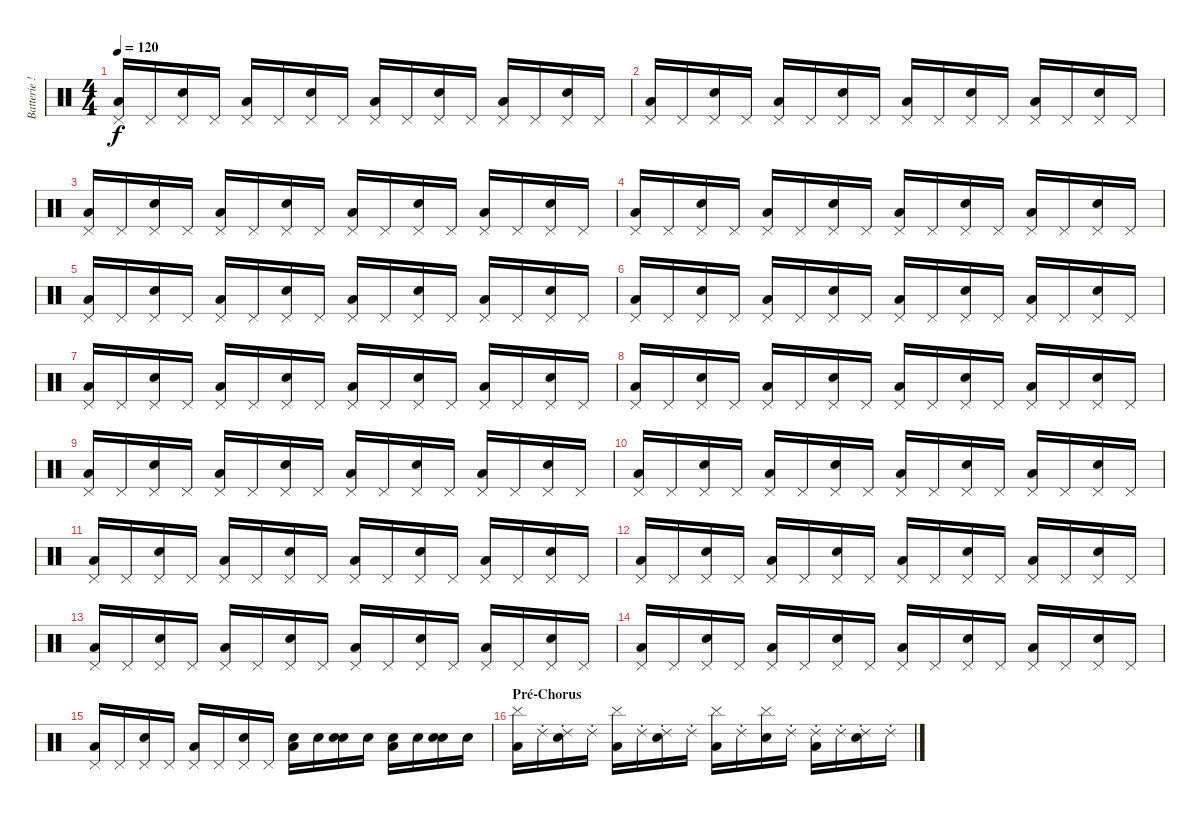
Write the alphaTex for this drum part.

\track ("Batterie !!" "Batterie !") {instrument percussion}
\staff {score}
\articulation defaults
\ts (4 4)
\tempo 120
\clef neutral
\ks c
("Pedal Hi-Hat (hit)" "Low Floor Tom (hit)").16{dy f} "Pedal Hi-Hat (hit)".16 ("Pedal Hi-Hat (hit)" "Electric Snare (hit)").16 "Pedal Hi-Hat (hit)".16 ("Pedal Hi-Hat (hit)" "Low Floor Tom (hit)").16 "Pedal Hi-Hat (hit)".16 ("Pedal Hi-Hat (hit)" "Electric Snare (hit)").16 "Pedal Hi-Hat (hit)".16 ("Pedal Hi-Hat (hit)" "Low Floor Tom (hit)").16 "Pedal Hi-Hat (hit)".16 ("Pedal Hi-Hat (hit)" "Electric Snare (hit)").16 "Pedal Hi-Hat (hit)".16 ("Pedal Hi-Hat (hit)" "Low Floor Tom (hit)").16 "Pedal Hi-Hat (hit)".16 ("Pedal Hi-Hat (hit)" "Electric Snare (hit)").16 "Pedal Hi-Hat (hit)".16 |
("Pedal Hi-Hat (hit)" "Low Floor Tom (hit)").16 "Pedal Hi-Hat (hit)".16 ("Pedal Hi-Hat (hit)" "Electric Snare (hit)").16 "Pedal Hi-Hat (hit)".16 ("Pedal Hi-Hat (hit)" "Low Floor Tom (hit)").16 "Pedal Hi-Hat (hit)".16 ("Pedal Hi-Hat (hit)" "Electric Snare (hit)").16 "Pedal Hi-Hat (hit)".16 ("Pedal Hi-Hat (hit)" "Low Floor Tom (hit)").16 "Pedal Hi-Hat (hit)".16 ("Pedal Hi-Hat (hit)" "Electric Snare (hit)").16 "Pedal Hi-Hat (hit)".16 ("Pedal Hi-Hat (hit)" "Low Floor Tom (hit)").16 "Pedal Hi-Hat (hit)".16 ("Pedal Hi-Hat (hit)" "Electric Snare (hit)").16 "Pedal Hi-Hat (hit)".16 |
("Pedal Hi-Hat (hit)" "Low Floor Tom (hit)").16 "Pedal Hi-Hat (hit)".16 ("Pedal Hi-Hat (hit)" "Electric Snare (hit)").16 "Pedal Hi-Hat (hit)".16 ("Pedal Hi-Hat (hit)" "Low Floor Tom (hit)").16 "Pedal Hi-Hat (hit)".16 ("Pedal Hi-Hat (hit)" "Electric Snare (hit)").16 "Pedal Hi-Hat (hit)".16 ("Pedal Hi-Hat (hit)" "Low Floor Tom (hit)").16 "Pedal Hi-Hat (hit)".16 ("Pedal Hi-Hat (hit)" "Electric Snare (hit)").16 "Pedal Hi-Hat (hit)".16 ("Pedal Hi-Hat (hit)" "Low Floor Tom (hit)").16 "Pedal Hi-Hat (hit)".16 ("Pedal Hi-Hat (hit)" "Electric Snare (hit)").16 "Pedal Hi-Hat (hit)".16 |
("Pedal Hi-Hat (hit)" "Low Floor Tom (hit)").16 "Pedal Hi-Hat (hit)".16 ("Pedal Hi-Hat (hit)" "Electric Snare (hit)").16 "Pedal Hi-Hat (hit)".16 ("Pedal Hi-Hat (hit)" "Low Floor Tom (hit)").16 "Pedal Hi-Hat (hit)".16 ("Pedal Hi-Hat (hit)" "Electric Snare (hit)").16 "Pedal Hi-Hat (hit)".16 ("Pedal Hi-Hat (hit)" "Low Floor Tom (hit)").16 "Pedal Hi-Hat (hit)".16 ("Pedal Hi-Hat (hit)" "Electric Snare (hit)").16 "Pedal Hi-Hat (hit)".16 ("Pedal Hi-Hat (hit)" "Low Floor Tom (hit)").16 "Pedal Hi-Hat (hit)".16 ("Pedal Hi-Hat (hit)" "Electric Snare (hit)").16 "Pedal Hi-Hat (hit)".16 |
("Pedal Hi-Hat (hit)" "Low Floor Tom (hit)").16 "Pedal Hi-Hat (hit)".16 ("Pedal Hi-Hat (hit)" "Electric Snare (hit)").16 "Pedal Hi-Hat (hit)".16 ("Pedal Hi-Hat (hit)" "Low Floor Tom (hit)").16 "Pedal Hi-Hat (hit)".16 ("Pedal Hi-Hat (hit)" "Electric Snare (hit)").16 "Pedal Hi-Hat (hit)".16 ("Pedal Hi-Hat (hit)" "Low Floor Tom (hit)").16 "Pedal Hi-Hat (hit)".16 ("Pedal Hi-Hat (hit)" "Electric Snare (hit)").16 "Pedal Hi-Hat (hit)".16 ("Pedal Hi-Hat (hit)" "Low Floor Tom (hit)").16 "Pedal Hi-Hat (hit)".16 ("Pedal Hi-Hat (hit)" "Electric Snare (hit)").16 "Pedal Hi-Hat (hit)".16 |
("Pedal Hi-Hat (hit)" "Low Floor Tom (hit)").16 "Pedal Hi-Hat (hit)".16 ("Pedal Hi-Hat (hit)" "Electric Snare (hit)").16 "Pedal Hi-Hat (hit)".16 ("Pedal Hi-Hat (hit)" "Low Floor Tom (hit)").16 "Pedal Hi-Hat (hit)".16 ("Pedal Hi-Hat (hit)" "Electric Snare (hit)").16 "Pedal Hi-Hat (hit)".16 ("Pedal Hi-Hat (hit)" "Low Floor Tom (hit)").16 "Pedal Hi-Hat (hit)".16 ("Pedal Hi-Hat (hit)" "Electric Snare (hit)").16 "Pedal Hi-Hat (hit)".16 ("Pedal Hi-Hat (hit)" "Low Floor Tom (hit)").16 "Pedal Hi-Hat (hit)".16 ("Pedal Hi-Hat (hit)" "Electric Snare (hit)").16 "Pedal Hi-Hat (hit)".16 |
("Pedal Hi-Hat (hit)" "Low Floor Tom (hit)").16 "Pedal Hi-Hat (hit)".16 ("Pedal Hi-Hat (hit)" "Electric Snare (hit)").16 "Pedal Hi-Hat (hit)".16 ("Pedal Hi-Hat (hit)" "Low Floor Tom (hit)").16 "Pedal Hi-Hat (hit)".16 ("Pedal Hi-Hat (hit)" "Electric Snare (hit)").16 "Pedal Hi-Hat (hit)".16 ("Pedal Hi-Hat (hit)" "Low Floor Tom (hit)").16 "Pedal Hi-Hat (hit)".16 ("Pedal Hi-Hat (hit)" "Electric Snare (hit)").16 "Pedal Hi-Hat (hit)".16 ("Pedal Hi-Hat (hit)" "Low Floor Tom (hit)").16 "Pedal Hi-Hat (hit)".16 ("Pedal Hi-Hat (hit)" "Electric Snare (hit)").16 "Pedal Hi-Hat (hit)".16 |
("Pedal Hi-Hat (hit)" "Low Floor Tom (hit)").16 "Pedal Hi-Hat (hit)".16 ("Pedal Hi-Hat (hit)" "Electric Snare (hit)").16 "Pedal Hi-Hat (hit)".16 ("Pedal Hi-Hat (hit)" "Low Floor Tom (hit)").16 "Pedal Hi-Hat (hit)".16 ("Pedal Hi-Hat (hit)" "Electric Snare (hit)").16 "Pedal Hi-Hat (hit)".16 ("Pedal Hi-Hat (hit)" "Low Floor Tom (hit)").16 "Pedal Hi-Hat (hit)".16 ("Pedal Hi-Hat (hit)" "Electric Snare (hit)").16 "Pedal Hi-Hat (hit)".16 ("Pedal Hi-Hat (hit)" "Low Floor Tom (hit)").16 "Pedal Hi-Hat (hit)".16 ("Pedal Hi-Hat (hit)" "Electric Snare (hit)").16 "Pedal Hi-Hat (hit)".16 |
("Pedal Hi-Hat (hit)" "Low Floor Tom (hit)").16 "Pedal Hi-Hat (hit)".16 ("Pedal Hi-Hat (hit)" "Electric Snare (hit)").16 "Pedal Hi-Hat (hit)".16 ("Pedal Hi-Hat (hit)" "Low Floor Tom (hit)").16 "Pedal Hi-Hat (hit)".16 ("Pedal Hi-Hat (hit)" "Electric Snare (hit)").16 "Pedal Hi-Hat (hit)".16 ("Pedal Hi-Hat (hit)" "Low Floor Tom (hit)").16 "Pedal Hi-Hat (hit)".16 ("Pedal Hi-Hat (hit)" "Electric Snare (hit)").16 "Pedal Hi-Hat (hit)".16 ("Pedal Hi-Hat (hit)" "Low Floor Tom (hit)").16 "Pedal Hi-Hat (hit)".16 ("Pedal Hi-Hat (hit)" "Electric Snare (hit)").16 "Pedal Hi-Hat (hit)".16 |
("Pedal Hi-Hat (hit)" "Low Floor Tom (hit)").16 "Pedal Hi-Hat (hit)".16 ("Pedal Hi-Hat (hit)" "Electric Snare (hit)").16 "Pedal Hi-Hat (hit)".16 ("Pedal Hi-Hat (hit)" "Low Floor Tom (hit)").16 "Pedal Hi-Hat (hit)".16 ("Pedal Hi-Hat (hit)" "Electric Snare (hit)").16 "Pedal Hi-Hat (hit)".16 ("Pedal Hi-Hat (hit)" "Low Floor Tom (hit)").16 "Pedal Hi-Hat (hit)".16 ("Pedal Hi-Hat (hit)" "Electric Snare (hit)").16 "Pedal Hi-Hat (hit)".16 ("Pedal Hi-Hat (hit)" "Low Floor Tom (hit)").16 "Pedal Hi-Hat (hit)".16 ("Pedal Hi-Hat (hit)" "Electric Snare (hit)").16 "Pedal Hi-Hat (hit)".16 |
("Pedal Hi-Hat (hit)" "Low Floor Tom (hit)").16 "Pedal Hi-Hat (hit)".16 ("Pedal Hi-Hat (hit)" "Electric Snare (hit)").16 "Pedal Hi-Hat (hit)".16 ("Pedal Hi-Hat (hit)" "Low Floor Tom (hit)").16 "Pedal Hi-Hat (hit)".16 ("Pedal Hi-Hat (hit)" "Electric Snare (hit)").16 "Pedal Hi-Hat (hit)".16 ("Pedal Hi-Hat (hit)" "Low Floor Tom (hit)").16 "Pedal Hi-Hat (hit)".16 ("Pedal Hi-Hat (hit)" "Electric Snare (hit)").16 "Pedal Hi-Hat (hit)".16 ("Pedal Hi-Hat (hit)" "Low Floor Tom (hit)").16 "Pedal Hi-Hat (hit)".16 ("Pedal Hi-Hat (hit)" "Electric Snare (hit)").16 "Pedal Hi-Hat (hit)".16 |
("Pedal Hi-Hat (hit)" "Low Floor Tom (hit)").16 "Pedal Hi-Hat (hit)".16 ("Pedal Hi-Hat (hit)" "Electric Snare (hit)").16 "Pedal Hi-Hat (hit)".16 ("Pedal Hi-Hat (hit)" "Low Floor Tom (hit)").16 "Pedal Hi-Hat (hit)".16 ("Pedal Hi-Hat (hit)" "Electric Snare (hit)").16 "Pedal Hi-Hat (hit)".16 ("Pedal Hi-Hat (hit)" "Low Floor Tom (hit)").16 "Pedal Hi-Hat (hit)".16 ("Pedal Hi-Hat (hit)" "Electric Snare (hit)").16 "Pedal Hi-Hat (hit)".16 ("Pedal Hi-Hat (hit)" "Low Floor Tom (hit)").16 "Pedal Hi-Hat (hit)".16 ("Pedal Hi-Hat (hit)" "Electric Snare (hit)").16 "Pedal Hi-Hat (hit)".16 |
("Pedal Hi-Hat (hit)" "Low Floor Tom (hit)").16 "Pedal Hi-Hat (hit)".16 ("Pedal Hi-Hat (hit)" "Electric Snare (hit)").16 "Pedal Hi-Hat (hit)".16 ("Pedal Hi-Hat (hit)" "Low Floor Tom (hit)").16 "Pedal Hi-Hat (hit)".16 ("Pedal Hi-Hat (hit)" "Electric Snare (hit)").16 "Pedal Hi-Hat (hit)".16 ("Pedal Hi-Hat (hit)" "Low Floor Tom (hit)").16 "Pedal Hi-Hat (hit)".16 ("Pedal Hi-Hat (hit)" "Electric Snare (hit)").16 "Pedal Hi-Hat (hit)".16 ("Pedal Hi-Hat (hit)" "Low Floor Tom (hit)").16 "Pedal Hi-Hat (hit)".16 ("Pedal Hi-Hat (hit)" "Electric Snare (hit)").16 "Pedal Hi-Hat (hit)".16 |
("Pedal Hi-Hat (hit)" "Low Floor Tom (hit)").16 "Pedal Hi-Hat (hit)".16 ("Pedal Hi-Hat (hit)" "Electric Snare (hit)").16 "Pedal Hi-Hat (hit)".16 ("Pedal Hi-Hat (hit)" "Low Floor Tom (hit)").16 "Pedal Hi-Hat (hit)".16 ("Pedal Hi-Hat (hit)" "Electric Snare (hit)").16 "Pedal Hi-Hat (hit)".16 ("Pedal Hi-Hat (hit)" "Low Floor Tom (hit)").16 "Pedal Hi-Hat (hit)".16 ("Pedal Hi-Hat (hit)" "Electric Snare (hit)").16 "Pedal Hi-Hat (hit)".16 ("Pedal Hi-Hat (hit)" "Low Floor Tom (hit)").16 "Pedal Hi-Hat (hit)".16 ("Pedal Hi-Hat (hit)" "Electric Snare (hit)").16 "Pedal Hi-Hat (hit)".16 |
("Pedal Hi-Hat (hit)" "Low Floor Tom (hit)").16 "Pedal Hi-Hat (hit)".16 ("Pedal Hi-Hat (hit)" "Electric Snare (hit)").16 "Pedal Hi-Hat (hit)".16 ("Pedal Hi-Hat (hit)" "Low Floor Tom (hit)").16 "Pedal Hi-Hat (hit)".16 ("Pedal Hi-Hat (hit)" "Electric Snare (hit)").16 "Pedal Hi-Hat (hit)".16 ("Snare (hit) 2" "Low Floor Tom (hit)").16 "Snare (hit) 2".16 ("Snare (hit) 2" "Electric Snare (hit)").16 "Snare (hit) 2".16 ("Snare (hit) 2" "Low Floor Tom (hit)").16 "Snare (hit) 2".16 ("Snare (hit) 2" "Electric Snare (hit)").16 "Snare (hit) 2".16 |
\section ("" "Pré-Chorus")
("Cymbal (hit)" "Low Floor Tom (hit)").16 "Ride (choke) 2".16 ("Ride (choke) 2" "Electric Snare (hit)").16 "Ride (choke) 2".16 ("Cymbal (hit)" "Low Floor Tom (hit)").16 "Ride (choke) 2".16 ("Ride (choke) 2" "Electric Snare (hit)").16 "Ride (choke) 2".16 ("Cymbal (hit)" "Low Floor Tom (hit)").16 "Ride (choke) 2".16 ("Cymbal (hit)" "Electric Snare (hit)").16 "Ride (choke) 2".16 ("Ride (choke) 2" "Low Floor Tom (hit)").16 "Ride (choke) 2".16 ("Ride (choke) 2" "Electric Snare (hit)").16 "Ride (choke) 2".16
